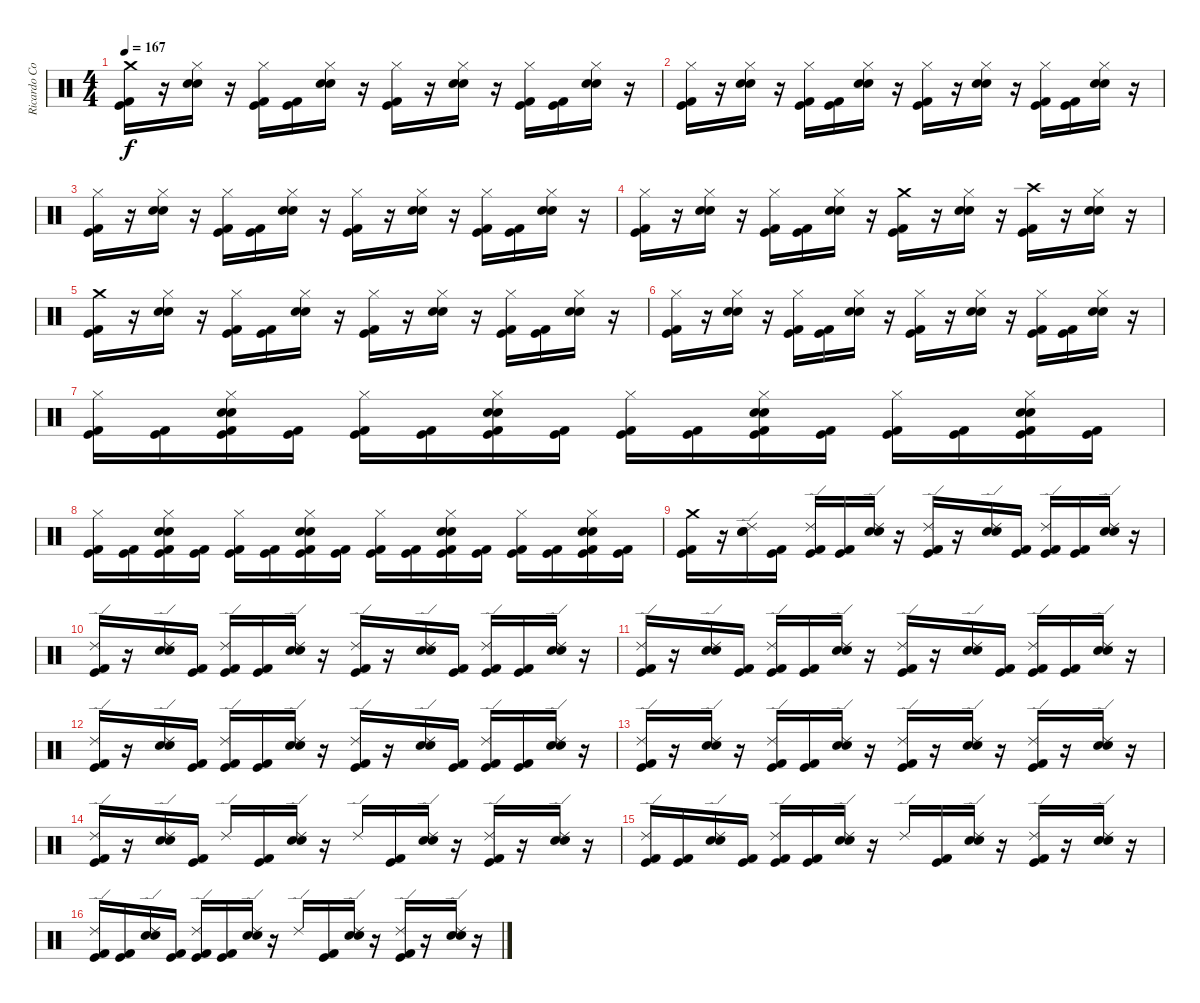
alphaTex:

\track ("Ricardo Confessori" "Ricardo Co") {instrument percussion}
\staff {score}
\articulation defaults
\ts (4 4)
\tempo 167
\clef neutral
\ks c
("Crash medium (hit)" "Kick (hit) 2" "Kick (hit)").16{dy f} r.16 ("Hi-Hat (closed)" "Electric Snare (hit)" "Snare (hit) 2").16 r.16 ("Kick (hit) 2" "Kick (hit)" "Hi-Hat (closed)").16 ("Kick (hit) 2" "Kick (hit)").16 ("Electric Snare (hit)" "Snare (hit) 2" "Hi-Hat (closed)").16 r.16 ("Kick (hit) 2" "Kick (hit)" "Hi-Hat (closed)").16 r.16 ("Electric Snare (hit)" "Snare (hit) 2" "Hi-Hat (closed)").16 r.16 ("Kick (hit) 2" "Kick (hit)" "Hi-Hat (closed)").16 ("Kick (hit) 2" "Kick (hit)").16 ("Electric Snare (hit)" "Snare (hit) 2" "Hi-Hat (closed)").16 r.16 |
("Hi-Hat (closed)" "Kick (hit) 2" "Kick (hit)").16 r.16 ("Hi-Hat (closed)" "Electric Snare (hit)" "Snare (hit) 2").16 r.16 ("Kick (hit) 2" "Kick (hit)" "Hi-Hat (closed)").16 ("Kick (hit) 2" "Kick (hit)").16 ("Electric Snare (hit)" "Snare (hit) 2" "Hi-Hat (closed)").16 r.16 ("Kick (hit) 2" "Kick (hit)" "Hi-Hat (closed)").16 r.16 ("Electric Snare (hit)" "Snare (hit) 2" "Hi-Hat (closed)").16 r.16 ("Kick (hit) 2" "Kick (hit)" "Hi-Hat (closed)").16 ("Kick (hit) 2" "Kick (hit)").16 ("Electric Snare (hit)" "Snare (hit) 2" "Hi-Hat (closed)").16 r.16 |
("Hi-Hat (closed)" "Kick (hit) 2" "Kick (hit)").16 r.16 ("Hi-Hat (closed)" "Electric Snare (hit)" "Snare (hit) 2").16 r.16 ("Kick (hit) 2" "Kick (hit)" "Hi-Hat (closed)").16 ("Kick (hit) 2" "Kick (hit)").16 ("Electric Snare (hit)" "Snare (hit) 2" "Hi-Hat (closed)").16 r.16 ("Kick (hit) 2" "Kick (hit)" "Hi-Hat (closed)").16 r.16 ("Electric Snare (hit)" "Snare (hit) 2" "Hi-Hat (closed)").16 r.16 ("Kick (hit) 2" "Kick (hit)" "Hi-Hat (closed)").16 ("Kick (hit) 2" "Kick (hit)").16 ("Electric Snare (hit)" "Snare (hit) 2" "Hi-Hat (closed)").16 r.16 |
("Hi-Hat (closed)" "Kick (hit) 2" "Kick (hit)").16 r.16 ("Hi-Hat (closed)" "Electric Snare (hit)" "Snare (hit) 2").16 r.16 ("Kick (hit) 2" "Kick (hit)" "Hi-Hat (closed)").16 ("Kick (hit) 2" "Kick (hit)").16 ("Electric Snare (hit)" "Snare (hit) 2" "Hi-Hat (closed)").16 r.16 ("Crash medium (hit)" "Kick (hit) 2" "Kick (hit)").16 r.16 ("Electric Snare (hit)" "Snare (hit) 2" "Hi-Hat (closed)").16 r.16 ("Crash high (hit)" "Kick (hit) 2" "Kick (hit)").16 r.16 ("Electric Snare (hit)" "Snare (hit) 2" "Hi-Hat (closed)").16 r.16 |
("Crash medium (hit)" "Kick (hit) 2" "Kick (hit)").16 r.16 ("Hi-Hat (closed)" "Electric Snare (hit)" "Snare (hit) 2").16 r.16 ("Kick (hit) 2" "Kick (hit)" "Hi-Hat (closed)").16 ("Kick (hit) 2" "Kick (hit)").16 ("Electric Snare (hit)" "Snare (hit) 2" "Hi-Hat (closed)").16 r.16 ("Kick (hit) 2" "Kick (hit)" "Hi-Hat (closed)").16 r.16 ("Electric Snare (hit)" "Snare (hit) 2" "Hi-Hat (closed)").16 r.16 ("Kick (hit) 2" "Kick (hit)" "Hi-Hat (closed)").16 ("Kick (hit) 2" "Kick (hit)").16 ("Electric Snare (hit)" "Snare (hit) 2" "Hi-Hat (closed)").16 r.16 |
("Hi-Hat (closed)" "Kick (hit) 2" "Kick (hit)").16 r.16 ("Hi-Hat (closed)" "Electric Snare (hit)" "Snare (hit) 2").16 r.16 ("Kick (hit) 2" "Kick (hit)" "Hi-Hat (closed)").16 ("Kick (hit) 2" "Kick (hit)").16 ("Electric Snare (hit)" "Snare (hit) 2" "Hi-Hat (closed)").16 r.16 ("Kick (hit) 2" "Kick (hit)" "Hi-Hat (closed)").16 r.16 ("Electric Snare (hit)" "Snare (hit) 2" "Hi-Hat (closed)").16 r.16 ("Kick (hit) 2" "Kick (hit)" "Hi-Hat (closed)").16 ("Kick (hit) 2" "Kick (hit)").16 ("Electric Snare (hit)" "Snare (hit) 2" "Hi-Hat (closed)").16 r.16 |
("Kick (hit) 2" "Kick (hit)" "Hi-Hat (closed)").16 ("Kick (hit) 2" "Kick (hit)").16 ("Kick (hit) 2" "Kick (hit)" "Hi-Hat (closed)" "Electric Snare (hit)" "Snare (hit) 2").16 ("Kick (hit) 2" "Kick (hit)").16 ("Kick (hit) 2" "Kick (hit)" "Hi-Hat (closed)").16 ("Kick (hit) 2" "Kick (hit)").16 ("Hi-Hat (closed)" "Kick (hit) 2" "Kick (hit)" "Electric Snare (hit)" "Snare (hit) 2").16 ("Kick (hit) 2" "Kick (hit)").16 ("Kick (hit) 2" "Kick (hit)" "Hi-Hat (closed)").16 ("Kick (hit) 2" "Kick (hit)").16 ("Hi-Hat (closed)" "Kick (hit) 2" "Kick (hit)" "Electric Snare (hit)" "Snare (hit) 2").16 ("Kick (hit) 2" "Kick (hit)").16 ("Kick (hit) 2" "Kick (hit)" "Hi-Hat (closed)").16 ("Kick (hit) 2" "Kick (hit)").16 ("Kick (hit) 2" "Kick (hit)" "Hi-Hat (closed)" "Electric Snare (hit)" "Snare (hit) 2").16 ("Kick (hit) 2" "Kick (hit)").16 |
("Hi-Hat (closed)" "Kick (hit) 2" "Kick (hit)").16 ("Kick (hit) 2" "Kick (hit)").16 ("Electric Snare (hit)" "Snare (hit) 2" "Kick (hit) 2" "Kick (hit)" "Hi-Hat (closed)").16 ("Kick (hit) 2" "Kick (hit)").16 ("Hi-Hat (closed)" "Kick (hit) 2" "Kick (hit)").16 ("Kick (hit) 2" "Kick (hit)").16 ("Electric Snare (hit)" "Snare (hit) 2" "Kick (hit) 2" "Kick (hit)" "Hi-Hat (closed)").16 ("Kick (hit) 2" "Kick (hit)").16 ("Hi-Hat (closed)" "Kick (hit) 2" "Kick (hit)").16 ("Kick (hit) 2" "Kick (hit)").16 ("Kick (hit) 2" "Hi-Hat (closed)" "Kick (hit)" "Electric Snare (hit)" "Snare (hit) 2").16 ("Kick (hit) 2" "Kick (hit)").16 ("Hi-Hat (closed)" "Kick (hit) 2" "Kick (hit)").16 ("Kick (hit) 2" "Kick (hit)").16 ("Electric Snare (hit)" "Snare (hit) 2" "Kick (hit) 2" "Hi-Hat (closed)" "Kick (hit)").16 ("Kick (hit) 2" "Kick (hit)").16 |
("Crash medium (hit)" "Kick (hit) 2" "Kick (hit)").16 r.16 ("Ride (edge) 2" "Electric Snare (hit)" "Snare (hit) 2").16 ("Kick (hit) 2" "Kick (hit)").16 ("Ride (edge) 2" "Kick (hit) 2" "Kick (hit)").16 ("Kick (hit) 2" "Kick (hit)").16 ("Ride (edge) 2" "Electric Snare (hit)" "Snare (hit) 2").16 r.16 ("Ride (edge) 2" "Kick (hit) 2" "Kick (hit)").16 r.16 ("Ride (edge) 2" "Electric Snare (hit)" "Snare (hit) 2").16 ("Kick (hit) 2" "Kick (hit)").16 ("Ride (edge) 2" "Kick (hit) 2" "Kick (hit)").16 ("Kick (hit) 2" "Kick (hit)").16 ("Ride (edge) 2" "Electric Snare (hit)" "Snare (hit) 2").16 r.16 |
("Ride (edge) 2" "Kick (hit) 2" "Kick (hit)").16 r.16 ("Ride (edge) 2" "Electric Snare (hit)" "Snare (hit) 2").16 ("Kick (hit) 2" "Kick (hit)").16 ("Ride (edge) 2" "Kick (hit) 2" "Kick (hit)").16 ("Kick (hit) 2" "Kick (hit)").16 ("Ride (edge) 2" "Electric Snare (hit)" "Snare (hit) 2").16 r.16 ("Ride (edge) 2" "Kick (hit) 2" "Kick (hit)").16 r.16 ("Ride (edge) 2" "Electric Snare (hit)" "Snare (hit) 2").16 ("Kick (hit) 2" "Kick (hit)").16 ("Ride (edge) 2" "Kick (hit) 2" "Kick (hit)").16 ("Kick (hit) 2" "Kick (hit)").16 ("Ride (edge) 2" "Electric Snare (hit)" "Snare (hit) 2").16 r.16 |
("Ride (edge) 2" "Kick (hit) 2" "Kick (hit)").16 r.16 ("Ride (edge) 2" "Electric Snare (hit)" "Snare (hit) 2").16 ("Kick (hit) 2" "Kick (hit)").16 ("Ride (edge) 2" "Kick (hit) 2" "Kick (hit)").16 ("Kick (hit) 2" "Kick (hit)").16 ("Ride (edge) 2" "Electric Snare (hit)" "Snare (hit) 2").16 r.16 ("Ride (edge) 2" "Kick (hit) 2" "Kick (hit)").16 r.16 ("Ride (edge) 2" "Electric Snare (hit)" "Snare (hit) 2").16 ("Kick (hit) 2" "Kick (hit)").16 ("Ride (edge) 2" "Kick (hit) 2" "Kick (hit)").16 ("Kick (hit) 2" "Kick (hit)").16 ("Ride (edge) 2" "Electric Snare (hit)" "Snare (hit) 2").16 r.16 |
("Ride (edge) 2" "Kick (hit) 2" "Kick (hit)").16 r.16 ("Ride (edge) 2" "Electric Snare (hit)" "Snare (hit) 2").16 ("Kick (hit) 2" "Kick (hit)").16 ("Ride (edge) 2" "Kick (hit) 2" "Kick (hit)").16 ("Kick (hit) 2" "Kick (hit)").16 ("Ride (edge) 2" "Electric Snare (hit)" "Snare (hit) 2").16 r.16 ("Ride (edge) 2" "Kick (hit) 2" "Kick (hit)").16 r.16 ("Ride (edge) 2" "Electric Snare (hit)" "Snare (hit) 2").16 ("Kick (hit) 2" "Kick (hit)").16 ("Ride (edge) 2" "Kick (hit) 2" "Kick (hit)").16 ("Kick (hit) 2" "Kick (hit)").16 ("Ride (edge) 2" "Electric Snare (hit)" "Snare (hit) 2").16 r.16 |
("Kick (hit) 2" "Ride (edge) 2" "Kick (hit)").16 r.16 ("Electric Snare (hit)" "Snare (hit) 2" "Ride (edge) 2").16 r.16 ("Kick (hit) 2" "Kick (hit)" "Ride (edge) 2").16 ("Kick (hit) 2" "Kick (hit)").16 ("Electric Snare (hit)" "Snare (hit) 2" "Ride (edge) 2").16 r.16 ("Kick (hit) 2" "Kick (hit)" "Ride (edge) 2").16 r.16 ("Electric Snare (hit)" "Snare (hit) 2" "Ride (edge) 2").16 r.16 ("Kick (hit) 2" "Kick (hit)" "Ride (edge) 2").16 r.16 ("Electric Snare (hit)" "Snare (hit) 2" "Ride (edge) 2").16 r.16 |
("Ride (edge) 2" "Kick (hit) 2" "Kick (hit)").16 r.16 ("Ride (edge) 2" "Snare (hit) 2" "Electric Snare (hit)").16 ("Kick (hit) 2" "Kick (hit)").16 "Ride (edge) 2".16 ("Kick (hit) 2" "Kick (hit)").16 ("Ride (edge) 2" "Electric Snare (hit)" "Snare (hit) 2").16 r.16 "Ride (edge) 2".16 ("Kick (hit) 2" "Kick (hit)").16 ("Ride (edge) 2" "Electric Snare (hit)" "Snare (hit) 2").16 r.16 ("Ride (edge) 2" "Kick (hit) 2" "Kick (hit)").16 r.16 ("Ride (edge) 2" "Electric Snare (hit)" "Snare (hit) 2").16 r.16 |
("Ride (edge) 2" "Kick (hit) 2" "Kick (hit)").16 ("Kick (hit) 2" "Kick (hit)").16 ("Ride (edge) 2" "Electric Snare (hit)" "Snare (hit) 2").16 ("Kick (hit) 2" "Kick (hit)").16 ("Ride (edge) 2" "Kick (hit) 2" "Kick (hit)").16 ("Kick (hit) 2" "Kick (hit)").16 ("Ride (edge) 2" "Electric Snare (hit)" "Snare (hit) 2").16 r.16 "Ride (edge) 2".16 ("Kick (hit) 2" "Kick (hit)").16 ("Ride (edge) 2" "Electric Snare (hit)" "Snare (hit) 2").16 r.16 ("Ride (edge) 2" "Kick (hit) 2" "Kick (hit)").16 r.16 ("Ride (edge) 2" "Electric Snare (hit)" "Snare (hit) 2").16 r.16 |
("Ride (edge) 2" "Kick (hit) 2" "Kick (hit)").16 ("Kick (hit) 2" "Kick (hit)").16 ("Ride (edge) 2" "Electric Snare (hit)" "Snare (hit) 2").16 ("Kick (hit) 2" "Kick (hit)").16 ("Ride (edge) 2" "Kick (hit) 2" "Kick (hit)").16 ("Kick (hit) 2" "Kick (hit)").16 ("Ride (edge) 2" "Electric Snare (hit)" "Snare (hit) 2").16 r.16 "Ride (edge) 2".16 ("Kick (hit) 2" "Kick (hit)").16 ("Ride (edge) 2" "Electric Snare (hit)" "Snare (hit) 2").16 r.16 ("Ride (edge) 2" "Kick (hit) 2" "Kick (hit)").16 r.16 ("Ride (edge) 2" "Electric Snare (hit)" "Snare (hit) 2").16 r.16
